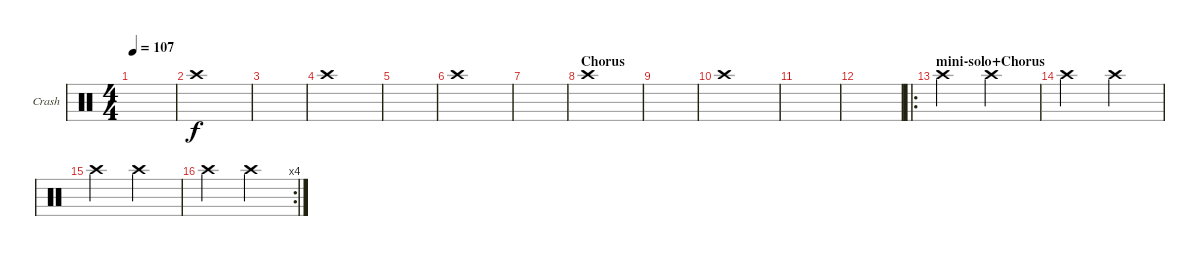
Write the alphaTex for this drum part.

\bracketExtendMode groupsimilarinstruments
\firstSystemTrackNameOrientation horizontal
\otherSystemsTrackNameOrientation horizontal
\track ("Crash" "Crash") {instrument percussion}
\staff {score}
\articulation defaults
\ts (4 4)
\tempo 107
\clef neutral
\ks c
|
"Crash high (hit)".1 |
|
"Crash high (hit)".1 |
|
"Crash high (hit)".1 |
|
\section ("" "Chorus")
"Crash high (hit)".1 |
|
"Crash high (hit)".1 |
|
|
\ro
\section ("" "mini-solo+Chorus")
"Crash high (hit)".2 "Crash high (hit)".2 |
"Crash high (hit)".2 "Crash high (hit)".2 |
"Crash high (hit)".2 "Crash high (hit)".2 |
\rc 4 "Crash high (hit)".2 "Crash high (hit)".2
